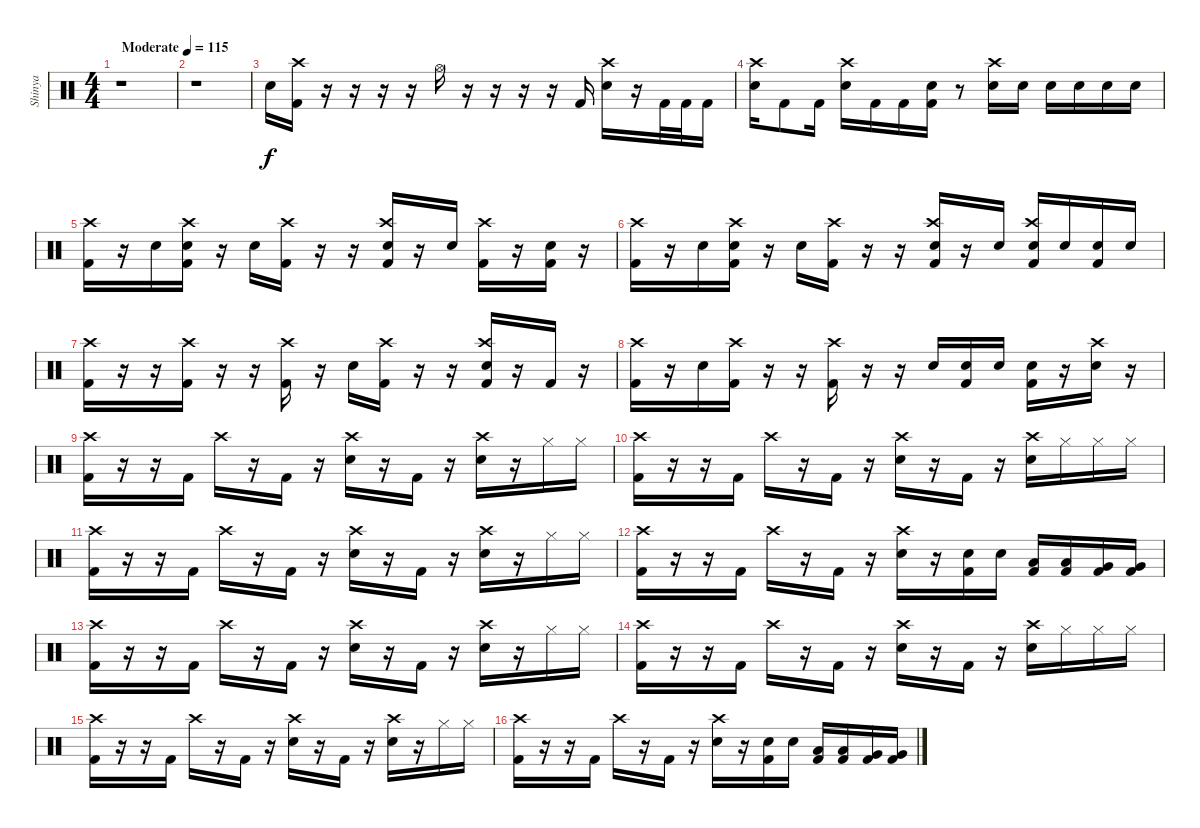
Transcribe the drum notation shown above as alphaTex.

\track ("Shinya" "Shinya") {instrument percussion}
\staff {score}
\articulation defaults
\ts (4 4)
\tempo (115 "Moderate")
\clef neutral
\ks c
r.1{dy f} |
r.1 |
"Electric Snare (hit)".16 ("Crash high (hit)" "Kick (hit) 2").16 r.16 r.16 r.16 r.16 "Hi-Hat (open)".16 r.16 r.16 r.16 r.16 "Kick (hit) 2".16 ("Crash high (hit)" "Electric Snare (hit)").16 r.16 "Kick (hit) 2".32 "Kick (hit) 2".32 "Kick (hit) 2".16 |
("Crash high (hit)" "Electric Snare (hit)").16 "Kick (hit) 2".8 "Kick (hit) 2".16 ("Crash high (hit)" "Electric Snare (hit)").16 "Kick (hit) 2".16 "Kick (hit) 2".16 ("Electric Snare (hit)" "Kick (hit) 2").16 r.8 ("Crash high (hit)" "Electric Snare (hit)").16 "Electric Snare (hit)".16 "Electric Snare (hit)".16 "Electric Snare (hit)".16 "Electric Snare (hit)".16 "Electric Snare (hit)".16 |
("Crash high (hit)" "Kick (hit) 2").16 r.16 "Electric Snare (hit)".16 ("Crash high (hit)" "Electric Snare (hit)" "Kick (hit) 2").16 r.16 "Electric Snare (hit)".16 ("Crash high (hit)" "Kick (hit) 2").16 r.16 r.16 ("Crash high (hit)" "Electric Snare (hit)" "Kick (hit) 2").16 r.16 "Electric Snare (hit)".16 ("Crash high (hit)" "Kick (hit) 2").16 r.16 ("Electric Snare (hit)" "Kick (hit) 2").16 r.16 |
("Crash high (hit)" "Kick (hit) 2").16 r.16 "Electric Snare (hit)".16 ("Crash high (hit)" "Electric Snare (hit)" "Kick (hit) 2").16 r.16 "Electric Snare (hit)".16 ("Crash high (hit)" "Kick (hit) 2").16 r.16 r.16 ("Crash high (hit)" "Electric Snare (hit)" "Kick (hit) 2").16 r.16 "Electric Snare (hit)".16 ("Crash high (hit)" "Electric Snare (hit)" "Kick (hit) 2").16 "Electric Snare (hit)".16 ("Electric Snare (hit)" "Kick (hit) 2").16 "Electric Snare (hit)".16 |
("Crash high (hit)" "Kick (hit) 2").16 r.16 r.16 ("Crash high (hit)" "Kick (hit) 2").16 r.16 r.16 ("Crash high (hit)" "Kick (hit) 2").16 r.16 "Electric Snare (hit)".16 ("Crash high (hit)" "Kick (hit) 2").16 r.16 r.16 ("Crash high (hit)" "Electric Snare (hit)" "Kick (hit) 2").16 r.16 "Kick (hit) 2".16 r.16 |
("Crash high (hit)" "Kick (hit) 2").16 r.16 "Electric Snare (hit)".16 ("Crash high (hit)" "Kick (hit) 2").16 r.16 r.16 ("Crash high (hit)" "Kick (hit) 2").16 r.16 r.16 "Electric Snare (hit)".16 ("Electric Snare (hit)" "Kick (hit) 2").16 "Electric Snare (hit)".16 ("Electric Snare (hit)" "Kick (hit) 2").16 r.16 ("Crash high (hit)" "Electric Snare (hit)").16 r.16 |
("Crash high (hit)" "Kick (hit) 2").16 r.16 r.16 "Kick (hit) 2".16 "Crash high (hit)".16 r.16 "Kick (hit) 2".16 r.16 ("Crash high (hit)" "Electric Snare (hit)").16 r.16 "Kick (hit) 2".16 r.16 ("Crash high (hit)" "Electric Snare (hit)").16 r.16 "Hi-Hat (closed)".16 "Hi-Hat (closed)".16 |
("Crash high (hit)" "Kick (hit) 2").16 r.16 r.16 "Kick (hit) 2".16 "Crash high (hit)".16 r.16 "Kick (hit) 2".16 r.16 ("Crash high (hit)" "Electric Snare (hit)").16 r.16 "Kick (hit) 2".16 r.16 ("Crash high (hit)" "Electric Snare (hit)").16 "Hi-Hat (closed)".16 "Hi-Hat (closed)".16 "Hi-Hat (closed)".16 |
("Crash high (hit)" "Kick (hit) 2").16 r.16 r.16 "Kick (hit) 2".16 "Crash high (hit)".16 r.16 "Kick (hit) 2".16 r.16 ("Crash high (hit)" "Electric Snare (hit)").16 r.16 "Kick (hit) 2".16 r.16 ("Crash high (hit)" "Electric Snare (hit)").16 r.16 "Hi-Hat (closed)".16 "Hi-Hat (closed)".16 |
("Crash high (hit)" "Kick (hit) 2").16 r.16 r.16 "Kick (hit) 2".16 "Crash high (hit)".16 r.16 "Kick (hit) 2".16 r.16 ("Crash high (hit)" "Electric Snare (hit)").16 r.16 ("Electric Snare (hit)" "Kick (hit) 2").16 "Electric Snare (hit)".16 ("Low Tom (hit)" "Kick (hit) 2").16 ("Low Tom (hit)" "Kick (hit) 2").16 ("Very Low Tom (hit)" "Kick (hit) 2").16 ("Very Low Tom (hit)" "Kick (hit) 2").16 |
("Crash high (hit)" "Kick (hit) 2").16 r.16 r.16 "Kick (hit) 2".16 "Crash high (hit)".16 r.16 "Kick (hit) 2".16 r.16 ("Crash high (hit)" "Electric Snare (hit)").16 r.16 "Kick (hit) 2".16 r.16 ("Crash high (hit)" "Electric Snare (hit)").16 r.16 "Hi-Hat (closed)".16 "Hi-Hat (closed)".16 |
("Crash high (hit)" "Kick (hit) 2").16 r.16 r.16 "Kick (hit) 2".16 "Crash high (hit)".16 r.16 "Kick (hit) 2".16 r.16 ("Crash high (hit)" "Electric Snare (hit)").16 r.16 "Kick (hit) 2".16 r.16 ("Crash high (hit)" "Electric Snare (hit)").16 "Hi-Hat (closed)".16 "Hi-Hat (closed)".16 "Hi-Hat (closed)".16 |
("Crash high (hit)" "Kick (hit) 2").16 r.16 r.16 "Kick (hit) 2".16 "Crash high (hit)".16 r.16 "Kick (hit) 2".16 r.16 ("Crash high (hit)" "Electric Snare (hit)").16 r.16 "Kick (hit) 2".16 r.16 ("Crash high (hit)" "Electric Snare (hit)").16 r.16 "Hi-Hat (closed)".16 "Hi-Hat (closed)".16 |
("Crash high (hit)" "Kick (hit) 2").16 r.16 r.16 "Kick (hit) 2".16 "Crash high (hit)".16 r.16 "Kick (hit) 2".16 r.16 ("Crash high (hit)" "Electric Snare (hit)").16 r.16 ("Electric Snare (hit)" "Kick (hit) 2").16 "Electric Snare (hit)".16 ("Low Tom (hit)" "Kick (hit) 2").16 ("Low Tom (hit)" "Kick (hit) 2").16 ("Very Low Tom (hit)" "Kick (hit) 2").16 ("Very Low Tom (hit)" "Kick (hit) 2").16
